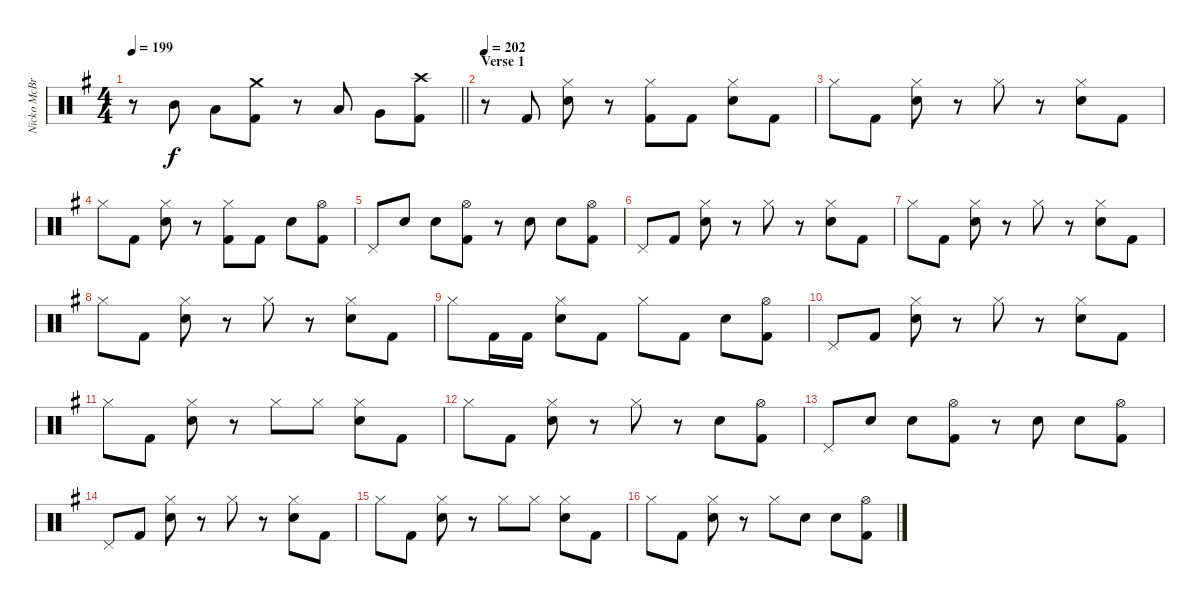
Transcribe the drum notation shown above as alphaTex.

\track ("Nicko McBrain (Drums)" "Nicko McBr") {instrument percussion}
\staff {score}
\articulation defaults
\ts (4 4)
\tempo 199
\clef neutral
\barLineRight lightlight
\ks eminor
r.8{dy f} "Mid Tom (hit)".8 "Low Tom (hit)".8 ("Crash medium (hit)" "Kick (hit) 2").8 r.8 "Low Tom (hit)".8 "Very Low Tom (hit)".8 ("Crash high (hit)" "Kick (hit) 2").8 |
\section ("" "Verse 1")
\tempo 202
r.8 "Kick (hit) 2".8 ("Hi-Hat (closed)" "Snare (hit) 2").8 r.8 ("Hi-Hat (closed)" "Kick (hit) 2").8 "Kick (hit) 2".8 ("Hi-Hat (closed)" "Snare (hit) 2").8 "Kick (hit) 2".8 |
"Hi-Hat (closed)".8 "Kick (hit) 2".8 ("Hi-Hat (closed)" "Snare (hit) 2").8 r.8 "Hi-Hat (closed)".8 r.8 ("Hi-Hat (closed)" "Snare (hit) 2").8 "Kick (hit) 2".8 |
"Hi-Hat (closed)".8 "Kick (hit) 2".8 ("Hi-Hat (closed)" "Snare (hit) 2").8 r.8 ("Hi-Hat (closed)" "Kick (hit) 2").8 "Kick (hit) 2".8 "Snare (hit) 2".8 ("Hi-Hat (open)" "Kick (hit) 2").8 |
"Pedal Hi-Hat (hit)".8 "Snare (hit) 2".8 "Snare (hit) 2".8 ("Hi-Hat (open)" "Kick (hit) 2").8 r.8 "Snare (hit) 2".8 "Snare (hit) 2".8 ("Hi-Hat (open)" "Kick (hit) 2").8 |
"Pedal Hi-Hat (hit)".8 "Kick (hit) 2".8 ("Hi-Hat (closed)" "Snare (hit) 2").8 r.8 "Hi-Hat (closed)".8 r.8 ("Hi-Hat (closed)" "Snare (hit) 2").8 "Kick (hit) 2".8 |
"Hi-Hat (closed)".8 "Kick (hit) 2".8 ("Hi-Hat (closed)" "Snare (hit) 2").8 r.8 "Hi-Hat (closed)".8 r.8 ("Hi-Hat (closed)" "Snare (hit) 2").8 "Kick (hit) 2".8 |
"Hi-Hat (closed)".8 "Kick (hit) 2".8 ("Hi-Hat (closed)" "Snare (hit) 2").8 r.8 "Hi-Hat (closed)".8 r.8 ("Hi-Hat (closed)" "Snare (hit) 2").8 "Kick (hit) 2".8 |
"Hi-Hat (closed)".8 "Kick (hit) 2".16 "Kick (hit) 2".16 ("Hi-Hat (closed)" "Snare (hit) 2").8 "Kick (hit) 2".8 "Hi-Hat (closed)".8 "Kick (hit) 2".8 "Snare (hit) 2".8 ("Hi-Hat (open)" "Kick (hit) 2").8 |
"Pedal Hi-Hat (hit)".8 "Kick (hit) 2".8 ("Hi-Hat (closed)" "Snare (hit) 2").8 r.8 "Hi-Hat (closed)".8 r.8 ("Hi-Hat (closed)" "Snare (hit) 2").8 "Kick (hit) 2".8 |
"Hi-Hat (closed)".8 "Kick (hit) 2".8 ("Hi-Hat (closed)" "Snare (hit) 2").8 r.8 "Hi-Hat (closed)".8 "Hi-Hat (closed)".8 ("Hi-Hat (closed)" "Snare (hit) 2").8 "Kick (hit) 2".8 |
"Hi-Hat (closed)".8 "Kick (hit) 2".8 ("Hi-Hat (closed)" "Snare (hit) 2").8 r.8 "Hi-Hat (closed)".8 r.8 "Snare (hit) 2".8 ("Hi-Hat (open)" "Kick (hit) 2").8 |
"Pedal Hi-Hat (hit)".8 "Snare (hit) 2".8 "Snare (hit) 2".8 ("Hi-Hat (open)" "Kick (hit) 2").8 r.8 "Snare (hit) 2".8 "Snare (hit) 2".8 ("Hi-Hat (open)" "Kick (hit) 2").8 |
"Pedal Hi-Hat (hit)".8 "Kick (hit) 2".8 ("Hi-Hat (closed)" "Snare (hit) 2").8 r.8 "Hi-Hat (closed)".8 r.8 ("Hi-Hat (closed)" "Snare (hit) 2").8 "Kick (hit) 2".8 |
"Hi-Hat (closed)".8 "Kick (hit) 2".8 ("Hi-Hat (closed)" "Snare (hit) 2").8 r.8 "Hi-Hat (closed)".8 "Hi-Hat (closed)".8 ("Hi-Hat (closed)" "Snare (hit) 2").8 "Kick (hit) 2".8 |
"Hi-Hat (closed)".8 "Kick (hit) 2".8 ("Hi-Hat (closed)" "Snare (hit) 2").8 r.8 "Hi-Hat (closed)".8 "Snare (hit) 2".8 "Snare (hit) 2".8 ("Hi-Hat (open)" "Kick (hit) 2").8
